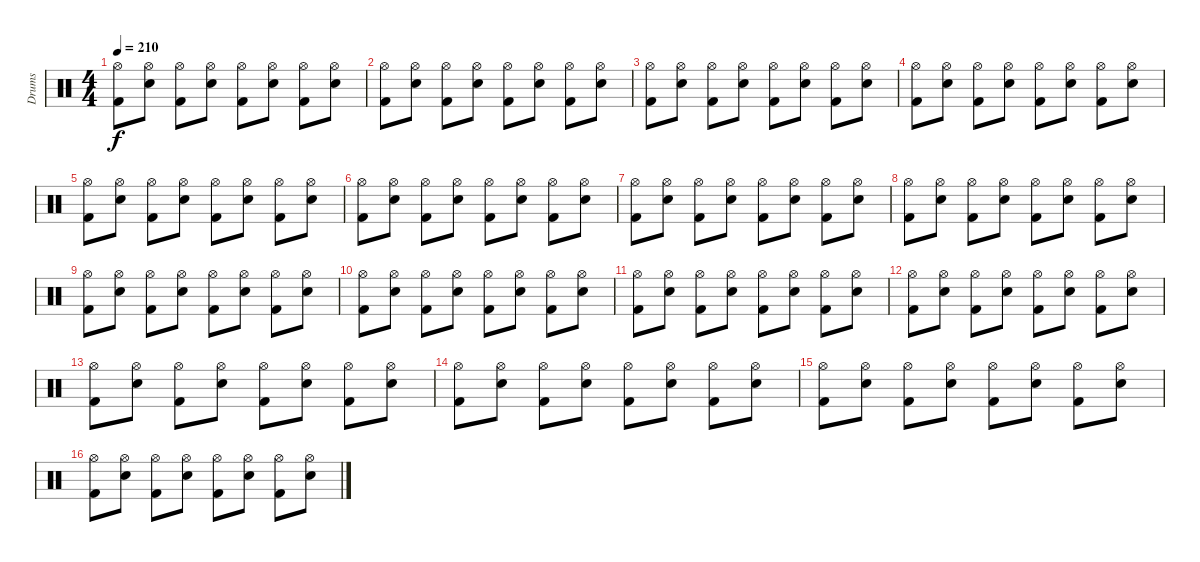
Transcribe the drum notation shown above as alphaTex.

\track ("Drums" "Drums") {instrument percussion}
\staff {score}
\articulation defaults
\ts (4 4)
\tempo 210
\clef neutral
\ks c
("Hi-Hat (open)" "Kick (hit) 2").8{dy f} ("Hi-Hat (open)" "Snare (hit) 2").8 ("Hi-Hat (open)" "Kick (hit) 2").8 ("Hi-Hat (open)" "Snare (hit) 2").8 ("Hi-Hat (open)" "Kick (hit) 2").8 ("Hi-Hat (open)" "Snare (hit) 2").8 ("Hi-Hat (open)" "Kick (hit) 2").8 ("Hi-Hat (open)" "Snare (hit) 2").8 |
("Hi-Hat (open)" "Kick (hit) 2").8 ("Hi-Hat (open)" "Snare (hit) 2").8 ("Hi-Hat (open)" "Kick (hit) 2").8 ("Hi-Hat (open)" "Snare (hit) 2").8 ("Hi-Hat (open)" "Kick (hit) 2").8 ("Hi-Hat (open)" "Snare (hit) 2").8 ("Hi-Hat (open)" "Kick (hit) 2").8 ("Hi-Hat (open)" "Snare (hit) 2").8 |
("Hi-Hat (open)" "Kick (hit) 2").8 ("Hi-Hat (open)" "Snare (hit) 2").8 ("Hi-Hat (open)" "Kick (hit) 2").8 ("Hi-Hat (open)" "Snare (hit) 2").8 ("Hi-Hat (open)" "Kick (hit) 2").8 ("Hi-Hat (open)" "Snare (hit) 2").8 ("Hi-Hat (open)" "Kick (hit) 2").8 ("Hi-Hat (open)" "Snare (hit) 2").8 |
("Hi-Hat (open)" "Kick (hit) 2").8 ("Hi-Hat (open)" "Snare (hit) 2").8 ("Hi-Hat (open)" "Kick (hit) 2").8 ("Hi-Hat (open)" "Snare (hit) 2").8 ("Hi-Hat (open)" "Kick (hit) 2").8 ("Hi-Hat (open)" "Snare (hit) 2").8 ("Hi-Hat (open)" "Kick (hit) 2").8 ("Hi-Hat (open)" "Snare (hit) 2").8 |
("Hi-Hat (open)" "Kick (hit) 2").8 ("Hi-Hat (open)" "Snare (hit) 2").8 ("Hi-Hat (open)" "Kick (hit) 2").8 ("Hi-Hat (open)" "Snare (hit) 2").8 ("Hi-Hat (open)" "Kick (hit) 2").8 ("Hi-Hat (open)" "Snare (hit) 2").8 ("Hi-Hat (open)" "Kick (hit) 2").8 ("Hi-Hat (open)" "Snare (hit) 2").8 |
("Hi-Hat (open)" "Kick (hit) 2").8 ("Hi-Hat (open)" "Snare (hit) 2").8 ("Hi-Hat (open)" "Kick (hit) 2").8 ("Hi-Hat (open)" "Snare (hit) 2").8 ("Hi-Hat (open)" "Kick (hit) 2").8 ("Hi-Hat (open)" "Snare (hit) 2").8 ("Hi-Hat (open)" "Kick (hit) 2").8 ("Hi-Hat (open)" "Snare (hit) 2").8 |
("Hi-Hat (open)" "Kick (hit) 2").8 ("Hi-Hat (open)" "Snare (hit) 2").8 ("Hi-Hat (open)" "Kick (hit) 2").8 ("Hi-Hat (open)" "Snare (hit) 2").8 ("Hi-Hat (open)" "Kick (hit) 2").8 ("Hi-Hat (open)" "Snare (hit) 2").8 ("Hi-Hat (open)" "Kick (hit) 2").8 ("Hi-Hat (open)" "Snare (hit) 2").8 |
("Hi-Hat (open)" "Kick (hit) 2").8 ("Hi-Hat (open)" "Snare (hit) 2").8 ("Hi-Hat (open)" "Kick (hit) 2").8 ("Hi-Hat (open)" "Snare (hit) 2").8 ("Hi-Hat (open)" "Kick (hit) 2").8 ("Hi-Hat (open)" "Snare (hit) 2").8 ("Hi-Hat (open)" "Kick (hit) 2").8 ("Hi-Hat (open)" "Snare (hit) 2").8 |
("Hi-Hat (open)" "Kick (hit) 2").8 ("Hi-Hat (open)" "Snare (hit) 2").8 ("Hi-Hat (open)" "Kick (hit) 2").8 ("Hi-Hat (open)" "Snare (hit) 2").8 ("Hi-Hat (open)" "Kick (hit) 2").8 ("Hi-Hat (open)" "Snare (hit) 2").8 ("Hi-Hat (open)" "Kick (hit) 2").8 ("Hi-Hat (open)" "Snare (hit) 2").8 |
("Hi-Hat (open)" "Kick (hit) 2").8 ("Hi-Hat (open)" "Snare (hit) 2").8 ("Hi-Hat (open)" "Kick (hit) 2").8 ("Hi-Hat (open)" "Snare (hit) 2").8 ("Hi-Hat (open)" "Kick (hit) 2").8 ("Hi-Hat (open)" "Snare (hit) 2").8 ("Hi-Hat (open)" "Kick (hit) 2").8 ("Hi-Hat (open)" "Snare (hit) 2").8 |
("Hi-Hat (open)" "Kick (hit) 2").8 ("Hi-Hat (open)" "Snare (hit) 2").8 ("Hi-Hat (open)" "Kick (hit) 2").8 ("Hi-Hat (open)" "Snare (hit) 2").8 ("Hi-Hat (open)" "Kick (hit) 2").8 ("Hi-Hat (open)" "Snare (hit) 2").8 ("Hi-Hat (open)" "Kick (hit) 2").8 ("Hi-Hat (open)" "Snare (hit) 2").8 |
("Hi-Hat (open)" "Kick (hit) 2").8 ("Hi-Hat (open)" "Snare (hit) 2").8 ("Hi-Hat (open)" "Kick (hit) 2").8 ("Hi-Hat (open)" "Snare (hit) 2").8 ("Hi-Hat (open)" "Kick (hit) 2").8 ("Hi-Hat (open)" "Snare (hit) 2").8 ("Hi-Hat (open)" "Kick (hit) 2").8 ("Hi-Hat (open)" "Snare (hit) 2").8 |
("Hi-Hat (open)" "Kick (hit) 2").8 ("Hi-Hat (open)" "Snare (hit) 2").8 ("Hi-Hat (open)" "Kick (hit) 2").8 ("Hi-Hat (open)" "Snare (hit) 2").8 ("Hi-Hat (open)" "Kick (hit) 2").8 ("Hi-Hat (open)" "Snare (hit) 2").8 ("Hi-Hat (open)" "Kick (hit) 2").8 ("Hi-Hat (open)" "Snare (hit) 2").8 |
("Hi-Hat (open)" "Kick (hit) 2").8 ("Hi-Hat (open)" "Snare (hit) 2").8 ("Hi-Hat (open)" "Kick (hit) 2").8 ("Hi-Hat (open)" "Snare (hit) 2").8 ("Hi-Hat (open)" "Kick (hit) 2").8 ("Hi-Hat (open)" "Snare (hit) 2").8 ("Hi-Hat (open)" "Kick (hit) 2").8 ("Hi-Hat (open)" "Snare (hit) 2").8 |
("Hi-Hat (open)" "Kick (hit) 2").8 ("Hi-Hat (open)" "Snare (hit) 2").8 ("Hi-Hat (open)" "Kick (hit) 2").8 ("Hi-Hat (open)" "Snare (hit) 2").8 ("Hi-Hat (open)" "Kick (hit) 2").8 ("Hi-Hat (open)" "Snare (hit) 2").8 ("Hi-Hat (open)" "Kick (hit) 2").8 ("Hi-Hat (open)" "Snare (hit) 2").8 |
("Hi-Hat (open)" "Kick (hit) 2").8 ("Hi-Hat (open)" "Snare (hit) 2").8 ("Hi-Hat (open)" "Kick (hit) 2").8 ("Hi-Hat (open)" "Snare (hit) 2").8 ("Hi-Hat (open)" "Kick (hit) 2").8 ("Hi-Hat (open)" "Snare (hit) 2").8 ("Hi-Hat (open)" "Kick (hit) 2").8 ("Hi-Hat (open)" "Snare (hit) 2").8
